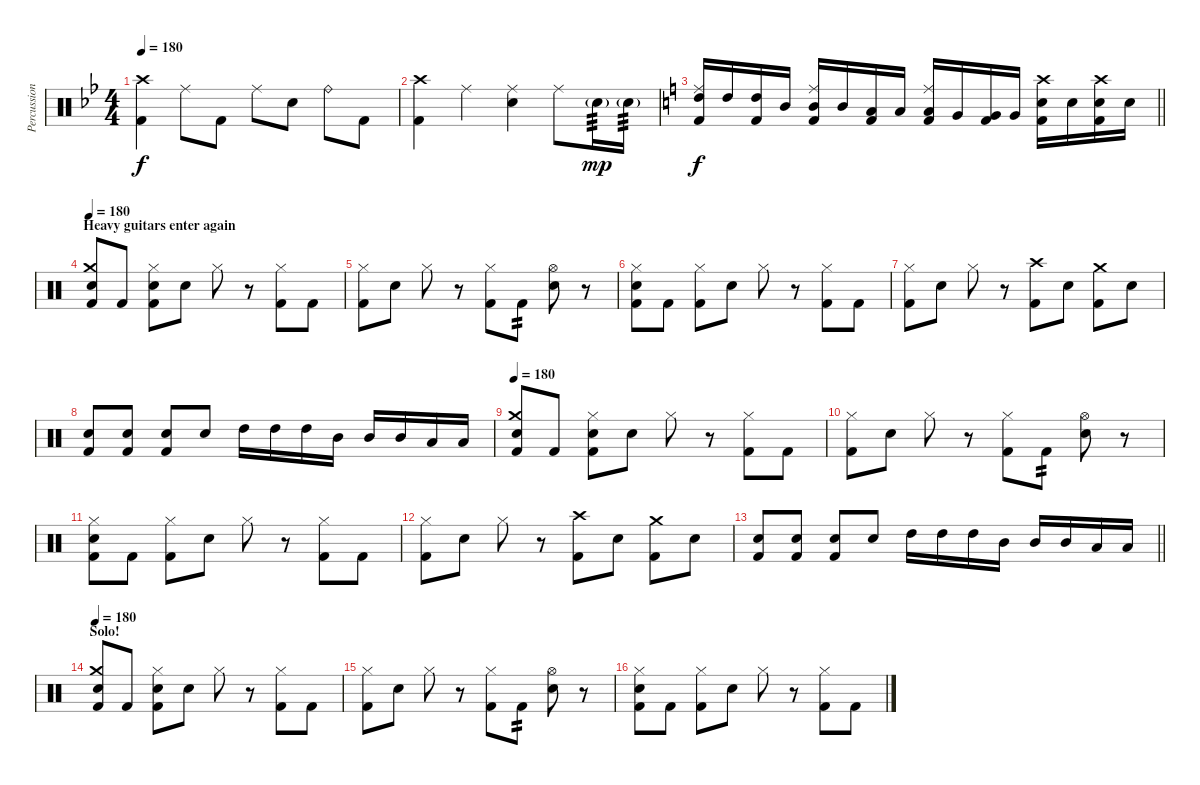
\track ("Percussion" "Percussion") {instrument percussion}
\staff {score}
\articulation defaults
\ts (4 4)
\tempo 180
\clef neutral
\ks gminor
("Crash high (hit)" "Kick (hit) 2").4{dy f} "Ride (middle)".8 "Kick (hit) 2".8 "Ride (middle)".8 "Electric Snare (hit)".8 "Ride (bell)".8 "Kick (hit) 2".8 |
("Kick (hit) 2" "Crash high (hit)").4 "Ride (middle)".4 ("Ride (middle)" "Electric Snare (hit)").4 "Ride (middle)".8 "Electric Snare (hit)"{g}.16{tp 3 dy mp} "Electric Snare (hit)"{g}.16{tp 3} |
\barLineRight lightlight
\ks c
("Ride (middle)" "High Tom (hit)" "Kick (hit) 2").16{dy f} "High Tom (hit)".16 ("High Tom (hit)" "Kick (hit) 2").16 "Mid Tom (hit)".16 ("Ride (middle)" "Mid Tom (hit)" "Kick (hit) 2").16 "Mid Tom (hit)".16 ("Low Tom (hit)" "Kick (hit) 2").16 "Low Tom (hit)".16 ("Ride (middle)" "Low Tom (hit)" "Kick (hit) 2").16 "Very Low Tom (hit)".16 ("Very Low Tom (hit)" "Kick (hit) 2").16 "Very Low Tom (hit)".16 ("Crash high (hit)" "Electric Snare (hit)" "Kick (hit) 2").16 "Electric Snare (hit)".16 ("Crash high (hit)" "Electric Snare (hit)" "Kick (hit) 2").16 "Electric Snare (hit)".16 |
\section ("" "Heavy guitars enter again")
\tempo 180
("Crash medium (hit)" "Snare (hit) 2" "Kick (hit) 2").8 "Kick (hit) 2".8 ("Hi-Hat (closed)" "Snare (hit) 2" "Kick (hit) 2").8 "Electric Snare (hit)".8 "Hi-Hat (closed)".8 r.8 ("Hi-Hat (closed)" "Kick (hit) 2").8 "Kick (hit) 2".8 |
("Hi-Hat (closed)" "Kick (hit) 2").8 "Electric Snare (hit)".8 "Hi-Hat (closed)".8 r.8 ("Hi-Hat (closed)" "Kick (hit) 2").8 "Kick (hit) 2".8{tp 2} ("Hi-Hat (open)" "Electric Snare (hit)").8 r.8 |
("Hi-Hat (closed)" "Snare (hit) 2" "Kick (hit) 2").8 "Kick (hit) 2".8 ("Hi-Hat (closed)" "Kick (hit) 2").8 "Electric Snare (hit)".8 "Hi-Hat (closed)".8 r.8 ("Hi-Hat (closed)" "Kick (hit) 2").8 "Kick (hit) 2".8 |
("Hi-Hat (closed)" "Kick (hit) 2").8 "Electric Snare (hit)".8 "Hi-Hat (closed)".8 r.8 ("Crash high (hit)" "Kick (hit) 2").8 "Snare (hit) 2".8 ("Crash medium (hit)" "Kick (hit) 2").8 "Snare (hit) 2".8 |
("Snare (hit) 2" "Kick (hit) 2").8 ("Snare (hit) 2" "Kick (hit) 2").8 ("Snare (hit) 2" "Kick (hit) 2").8 "Electric Snare (hit)".8 "High Tom (hit)".16 "High Tom (hit)".16 "High Tom (hit)".16 "Mid Tom (hit)".16 "Mid Tom (hit)".16 "Mid Tom (hit)".16 "Low Tom (hit)".16 "Low Tom (hit)".16 |
\tempo 180
("Crash medium (hit)" "Snare (hit) 2" "Kick (hit) 2").8 "Kick (hit) 2".8 ("Hi-Hat (closed)" "Snare (hit) 2" "Kick (hit) 2").8 "Electric Snare (hit)".8 "Hi-Hat (closed)".8 r.8 ("Hi-Hat (closed)" "Kick (hit) 2").8 "Kick (hit) 2".8 |
("Hi-Hat (closed)" "Kick (hit) 2").8 "Electric Snare (hit)".8 "Hi-Hat (closed)".8 r.8 ("Hi-Hat (closed)" "Kick (hit) 2").8 "Kick (hit) 2".8{tp 2} ("Hi-Hat (open)" "Electric Snare (hit)").8 r.8 |
("Hi-Hat (closed)" "Snare (hit) 2" "Kick (hit) 2").8 "Kick (hit) 2".8 ("Hi-Hat (closed)" "Kick (hit) 2").8 "Electric Snare (hit)".8 "Hi-Hat (closed)".8 r.8 ("Hi-Hat (closed)" "Kick (hit) 2").8 "Kick (hit) 2".8 |
("Hi-Hat (closed)" "Kick (hit) 2").8 "Electric Snare (hit)".8 "Hi-Hat (closed)".8 r.8 ("Crash high (hit)" "Kick (hit) 2").8 "Snare (hit) 2".8 ("Crash medium (hit)" "Kick (hit) 2").8 "Snare (hit) 2".8 |
\barLineRight lightlight
("Snare (hit) 2" "Kick (hit) 2").8 ("Snare (hit) 2" "Kick (hit) 2").8 ("Snare (hit) 2" "Kick (hit) 2").8 "Electric Snare (hit)".8 "High Tom (hit)".16 "High Tom (hit)".16 "High Tom (hit)".16 "Mid Tom (hit)".16 "Mid Tom (hit)".16 "Mid Tom (hit)".16 "Low Tom (hit)".16 "Low Tom (hit)".16 |
\section ("" "Solo!")
\tempo 180
("Crash medium (hit)" "Snare (hit) 2" "Kick (hit) 2").8 "Kick (hit) 2".8 ("Hi-Hat (closed)" "Snare (hit) 2" "Kick (hit) 2").8 "Electric Snare (hit)".8 "Hi-Hat (closed)".8 r.8 ("Hi-Hat (closed)" "Kick (hit) 2").8 "Kick (hit) 2".8 |
("Hi-Hat (closed)" "Kick (hit) 2").8 "Electric Snare (hit)".8 "Hi-Hat (closed)".8 r.8 ("Hi-Hat (closed)" "Kick (hit) 2").8 "Kick (hit) 2".8{tp 2} ("Hi-Hat (open)" "Electric Snare (hit)").8 r.8 |
("Hi-Hat (closed)" "Snare (hit) 2" "Kick (hit) 2").8 "Kick (hit) 2".8 ("Hi-Hat (closed)" "Kick (hit) 2").8 "Electric Snare (hit)".8 "Hi-Hat (closed)".8 r.8 ("Hi-Hat (closed)" "Kick (hit) 2").8 "Kick (hit) 2".8
